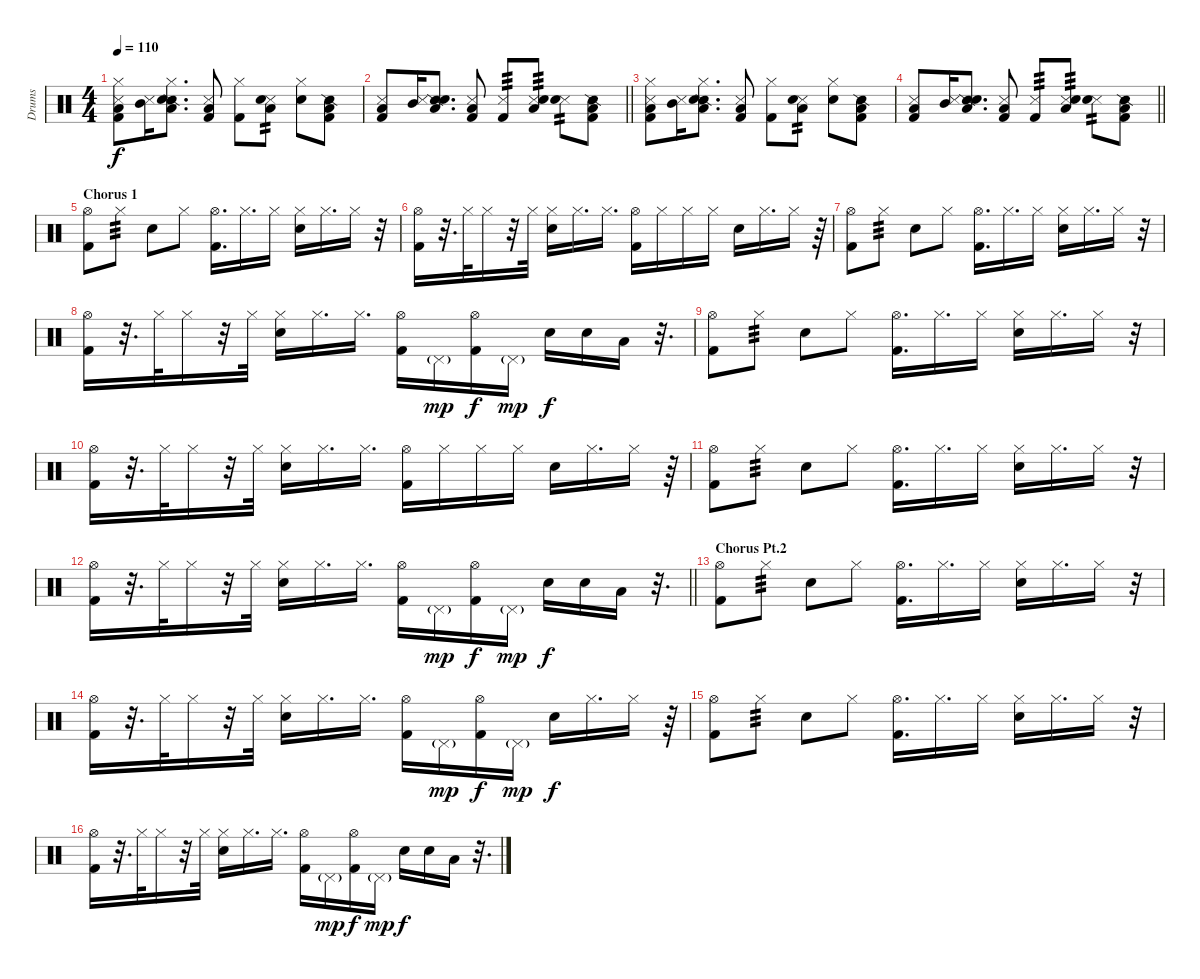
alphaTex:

\track ("Drums" "Drums") {instrument percussion}
\staff {score}
\articulation defaults
\ts (4 4)
\tempo 110
\clef neutral
\ks c
("Hi-Hat (closed)" "Snare (side stick) 3" "Low Tom (hit)" "Kick (hit) 2").8{dy f} ("Snare (side stick) 3" "Mid Tom (hit)").16 ("Hi-Hat (closed)" "Snare (side stick) 2" "Low Tom (hit)" "Snare (hit) 2").8{d} ("Snare (side stick) 3" "Low Tom (hit)" "Kick (hit) 2").8 ("Hi-Hat (closed)" "Kick (hit) 2").8 ("Snare (side stick) 3" "Low Tom (hit)" "Snare (hit) 2").8{tp 2} ("Hi-Hat (closed)" "Snare (hit) 2").8 ("Snare (side stick) 2" "Low Tom (hit)" "Kick (hit) 2").8 |
\barLineRight lightlight
("Snare (side stick) 3" "Low Tom (hit)" "Kick (hit) 2").8 ("Snare (side stick) 3" "Mid Tom (hit)").16 ("Snare (side stick) 2" "Low Tom (hit)" "Snare (hit) 2").8{d} ("Snare (side stick) 3" "Low Tom (hit)" "Kick (hit) 2").8 ("Snare (side stick) 3" "Kick (hit) 2").8{tp 3} ("Snare (side stick) 3" "Low Tom (hit)" "Snare (hit) 2").8{tp 3} ("Snare (side stick) 3" "Snare (hit) 2").8{tp 2} ("Snare (side stick) 2" "Low Tom (hit)" "Kick (hit) 2").8 |
("Hi-Hat (closed)" "Snare (side stick) 3" "Low Tom (hit)" "Kick (hit) 2").8 ("Snare (side stick) 3" "Mid Tom (hit)").16 ("Hi-Hat (closed)" "Snare (side stick) 2" "Low Tom (hit)" "Snare (hit) 2").8{d} ("Snare (side stick) 3" "Low Tom (hit)" "Kick (hit) 2").8 ("Hi-Hat (closed)" "Kick (hit) 2").8 ("Snare (side stick) 3" "Low Tom (hit)" "Snare (hit) 2").8{tp 2} ("Hi-Hat (closed)" "Snare (hit) 2").8 ("Snare (side stick) 2" "Low Tom (hit)" "Kick (hit) 2").8 |
\barLineRight lightlight
("Snare (side stick) 3" "Low Tom (hit)" "Kick (hit) 2").8 ("Snare (side stick) 3" "Mid Tom (hit)").16 ("Snare (side stick) 2" "Low Tom (hit)" "Snare (hit) 2").8{d} ("Snare (side stick) 3" "Low Tom (hit)" "Kick (hit) 2").8 ("Snare (side stick) 3" "Kick (hit) 2").8{tp 3} ("Snare (side stick) 3" "Low Tom (hit)" "Snare (hit) 2").8{tp 3} ("Snare (side stick) 3" "Snare (hit) 2").8{tp 2} ("Snare (side stick) 2" "Low Tom (hit)" "Kick (hit) 2").8 |
\section ("" "Chorus 1")
("Hi-Hat (open)" "Kick (hit) 2").8 "Hi-Hat (closed)".8{tp 3} "Snare (hit) 2".8 "Hi-Hat (closed)".8 ("Hi-Hat (open)" "Kick (hit) 2").16{d} "Hi-Hat (closed)".16{d} "Hi-Hat (closed)".16 ("Hi-Hat (closed)" "Snare (hit) 2").16 "Hi-Hat (closed)".16{d} "Hi-Hat (closed)".16 r.32 |
("Hi-Hat (open)" "Kick (hit) 2").16 r.32{d} "Hi-Hat (closed)".32 "Hi-Hat (closed)".16 r.32 "Hi-Hat (closed)".32 ("Hi-Hat (closed)" "Snare (hit) 2").16 "Hi-Hat (closed)".16{d} "Hi-Hat (closed)".16{d} ("Hi-Hat (open)" "Kick (hit) 2").16 "Hi-Hat (closed)".16 "Hi-Hat (closed)".16 "Hi-Hat (closed)".16 "Snare (hit) 2".16 "Hi-Hat (closed)".16{d} "Hi-Hat (closed)".16 r.64 |
("Hi-Hat (open)" "Kick (hit) 2").8 "Hi-Hat (closed)".8{tp 3} "Snare (hit) 2".8 "Hi-Hat (closed)".8 ("Hi-Hat (open)" "Kick (hit) 2").16{d} "Hi-Hat (closed)".16{d} "Hi-Hat (closed)".16 ("Hi-Hat (closed)" "Snare (hit) 2").16 "Hi-Hat (closed)".16{d} "Hi-Hat (closed)".16 r.32 |
("Hi-Hat (open)" "Kick (hit) 2").16 r.32{d} "Hi-Hat (closed)".32 "Hi-Hat (closed)".16 r.32 "Hi-Hat (closed)".32 ("Hi-Hat (closed)" "Snare (hit) 2").16 "Hi-Hat (closed)".16{d} "Hi-Hat (closed)".16{d} ("Hi-Hat (open)" "Kick (hit) 2").16 "Pedal Hi-Hat (hit)"{g}.16{dy mp} ("Hi-Hat (open)" "Kick (hit) 2").16{dy f} "Pedal Hi-Hat (hit)"{g}.16{dy mp} "Snare (hit) 2".16{dy f} "Snare (hit) 2".16 "Low Tom (hit)".16 r.32{d} |
("Hi-Hat (open)" "Kick (hit) 2").8 "Hi-Hat (closed)".8{tp 3} "Snare (hit) 2".8 "Hi-Hat (closed)".8 ("Hi-Hat (open)" "Kick (hit) 2").16{d} "Hi-Hat (closed)".16{d} "Hi-Hat (closed)".16 ("Hi-Hat (closed)" "Snare (hit) 2").16 "Hi-Hat (closed)".16{d} "Hi-Hat (closed)".16 r.32 |
("Hi-Hat (open)" "Kick (hit) 2").16 r.32{d} "Hi-Hat (closed)".32 "Hi-Hat (closed)".16 r.32 "Hi-Hat (closed)".32 ("Hi-Hat (closed)" "Snare (hit) 2").16 "Hi-Hat (closed)".16{d} "Hi-Hat (closed)".16{d} ("Hi-Hat (open)" "Kick (hit) 2").16 "Hi-Hat (closed)".16 "Hi-Hat (closed)".16 "Hi-Hat (closed)".16 "Snare (hit) 2".16 "Hi-Hat (closed)".16{d} "Hi-Hat (closed)".16 r.64 |
("Hi-Hat (open)" "Kick (hit) 2").8 "Hi-Hat (closed)".8{tp 3} "Snare (hit) 2".8 "Hi-Hat (closed)".8 ("Hi-Hat (open)" "Kick (hit) 2").16{d} "Hi-Hat (closed)".16{d} "Hi-Hat (closed)".16 ("Hi-Hat (closed)" "Snare (hit) 2").16 "Hi-Hat (closed)".16{d} "Hi-Hat (closed)".16 r.32 |
\barLineRight lightlight
("Hi-Hat (open)" "Kick (hit) 2").16 r.32{d} "Hi-Hat (closed)".32 "Hi-Hat (closed)".16 r.32 "Hi-Hat (closed)".32 ("Hi-Hat (closed)" "Snare (hit) 2").16 "Hi-Hat (closed)".16{d} "Hi-Hat (closed)".16{d} ("Hi-Hat (open)" "Kick (hit) 2").16 "Pedal Hi-Hat (hit)"{g}.16{dy mp} ("Hi-Hat (open)" "Kick (hit) 2").16{dy f} "Pedal Hi-Hat (hit)"{g}.16{dy mp} "Snare (hit) 2".16{dy f} "Snare (hit) 2".16 "Low Tom (hit)".16 r.32{d} |
\section ("" "Chorus Pt.2")
("Hi-Hat (open)" "Kick (hit) 2").8 "Hi-Hat (closed)".8{tp 3} "Snare (hit) 2".8 "Hi-Hat (closed)".8 ("Hi-Hat (open)" "Kick (hit) 2").16{d} "Hi-Hat (closed)".16{d} "Hi-Hat (closed)".16 ("Hi-Hat (closed)" "Snare (hit) 2").16 "Hi-Hat (closed)".16{d} "Hi-Hat (closed)".16 r.32 |
("Hi-Hat (open)" "Kick (hit) 2").16 r.32{d} "Hi-Hat (closed)".32 "Hi-Hat (closed)".16 r.32 "Hi-Hat (closed)".32 ("Hi-Hat (closed)" "Snare (hit) 2").16 "Hi-Hat (closed)".16{d} "Hi-Hat (closed)".16{d} ("Hi-Hat (open)" "Kick (hit) 2").16 "Pedal Hi-Hat (hit)"{g}.16{dy mp} ("Hi-Hat (open)" "Kick (hit) 2").16{dy f} "Pedal Hi-Hat (hit)"{g}.16{dy mp} "Snare (hit) 2".16{dy f} "Hi-Hat (closed)".16{d} "Hi-Hat (closed)".16 r.64 |
("Hi-Hat (open)" "Kick (hit) 2").8 "Hi-Hat (closed)".8{tp 3} "Snare (hit) 2".8 "Hi-Hat (closed)".8 ("Hi-Hat (open)" "Kick (hit) 2").16{d} "Hi-Hat (closed)".16{d} "Hi-Hat (closed)".16 ("Hi-Hat (closed)" "Snare (hit) 2").16 "Hi-Hat (closed)".16{d} "Hi-Hat (closed)".16 r.32 |
("Hi-Hat (open)" "Kick (hit) 2").16 r.32{d} "Hi-Hat (closed)".32 "Hi-Hat (closed)".16 r.32 "Hi-Hat (closed)".32 ("Hi-Hat (closed)" "Snare (hit) 2").16 "Hi-Hat (closed)".16{d} "Hi-Hat (closed)".16{d} ("Hi-Hat (open)" "Kick (hit) 2").16 "Pedal Hi-Hat (hit)"{g}.16{dy mp} ("Hi-Hat (open)" "Kick (hit) 2").16{dy f} "Pedal Hi-Hat (hit)"{g}.16{dy mp} "Snare (hit) 2".16{dy f} "Snare (hit) 2".16 "Low Tom (hit)".16 r.32{d}
